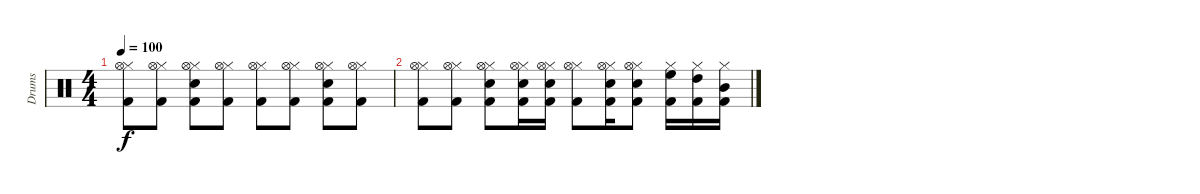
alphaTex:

\track ("Drums" "Drums") {instrument percussion}
\staff {score}
\articulation defaults
\ts (4 4)
\tempo 100
\clef neutral
\ks c
("Hi-Hat (closed)" "Kick (hit) 2" "Hi-Hat (open)").8{dy f} ("Hi-Hat (closed)" "Kick (hit) 2" "Hi-Hat (open)").8 ("Hi-Hat (closed)" "Kick (hit) 2" "Electric Snare (hit)" "Hi-Hat (open)").8 ("Hi-Hat (closed)" "Kick (hit) 2" "Hi-Hat (open)").8 ("Hi-Hat (closed)" "Kick (hit) 2" "Hi-Hat (open)").8 ("Hi-Hat (closed)" "Kick (hit) 2" "Hi-Hat (open)").8 ("Hi-Hat (closed)" "Kick (hit) 2" "Electric Snare (hit)" "Hi-Hat (open)").8 ("Hi-Hat (closed)" "Kick (hit) 2" "Hi-Hat (open)").8 |
("Hi-Hat (closed)" "Kick (hit) 2" "Hi-Hat (open)").8 ("Hi-Hat (closed)" "Kick (hit) 2" "Hi-Hat (open)").8 ("Hi-Hat (closed)" "Kick (hit) 2" "Electric Snare (hit)" "Hi-Hat (open)").8 ("Hi-Hat (closed)" "Kick (hit) 2" "Electric Snare (hit)" "Hi-Hat (open)").16 ("Hi-Hat (closed)" "Kick (hit) 2" "Electric Snare (hit)" "Hi-Hat (open)").16 ("Hi-Hat (closed)" "Kick (hit) 2" "Hi-Hat (open)").8 ("Hi-Hat (closed)" "Kick (hit) 2" "Electric Snare (hit)" "Hi-Hat (open)").16 ("Hi-Hat (closed)" "Kick (hit) 2" "Electric Snare (hit)" "Hi-Hat (open)").8 ("Hi-Hat (closed)" "Kick (hit) 2" "High Floor Tom (hit)").16 ("Hi-Hat (closed)" "Kick (hit) 2" "High Tom (hit)").16 ("Hi-Hat (closed)" "Kick (hit) 2" "Mid Tom (hit)").16
